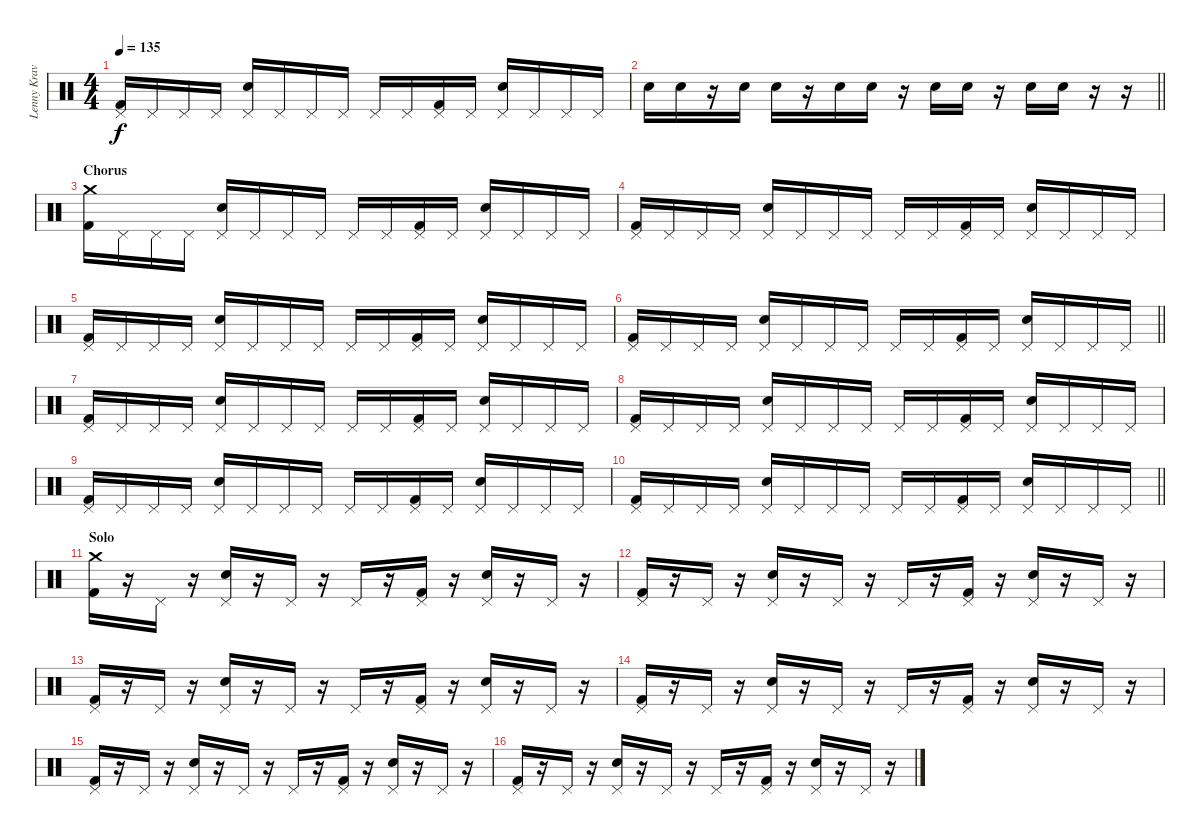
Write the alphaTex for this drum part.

\track ("Lenny Kravitz (drums)" "Lenny Krav") {instrument percussion}
\staff {score}
\articulation defaults
\ts (4 4)
\tempo 135
\clef neutral
\ks c
("Pedal Hi-Hat (hit)" "Kick (hit) 2").16{dy f} "Pedal Hi-Hat (hit)".16 "Pedal Hi-Hat (hit)".16 "Pedal Hi-Hat (hit)".16 ("Pedal Hi-Hat (hit)" "Electric Snare (hit)").16 "Pedal Hi-Hat (hit)".16 "Pedal Hi-Hat (hit)".16 "Pedal Hi-Hat (hit)".16 "Pedal Hi-Hat (hit)".16 "Pedal Hi-Hat (hit)".16 ("Pedal Hi-Hat (hit)" "Kick (hit) 2").16 "Pedal Hi-Hat (hit)".16 ("Pedal Hi-Hat (hit)" "Electric Snare (hit)").16 "Pedal Hi-Hat (hit)".16 "Pedal Hi-Hat (hit)".16 "Pedal Hi-Hat (hit)".16 |
\barLineRight lightlight "Electric Snare (hit)".16 "Electric Snare (hit)".16
r.16 "Electric Snare (hit)".16 "Electric Snare (hit)".16 r.16 "Electric Snare (hit)".16 "Electric Snare (hit)".16 r.16 "Electric Snare (hit)".16 "Electric Snare (hit)".16 r.16 "Electric Snare (hit)".16 "Electric Snare (hit)".16 r.16 r.16 |
\section ("" "Chorus")
("Crash medium (hit)" "Kick (hit) 2").16 "Pedal Hi-Hat (hit)".16 "Pedal Hi-Hat (hit)".16 "Pedal Hi-Hat (hit)".16 ("Pedal Hi-Hat (hit)" "Electric Snare (hit)").16 "Pedal Hi-Hat (hit)".16 "Pedal Hi-Hat (hit)".16 "Pedal Hi-Hat (hit)".16 "Pedal Hi-Hat (hit)".16 "Pedal Hi-Hat (hit)".16 ("Pedal Hi-Hat (hit)" "Kick (hit) 2").16 "Pedal Hi-Hat (hit)".16 ("Pedal Hi-Hat (hit)" "Electric Snare (hit)").16 "Pedal Hi-Hat (hit)".16 "Pedal Hi-Hat (hit)".16 "Pedal Hi-Hat (hit)".16 |
("Pedal Hi-Hat (hit)" "Kick (hit) 2").16 "Pedal Hi-Hat (hit)".16 "Pedal Hi-Hat (hit)".16 "Pedal Hi-Hat (hit)".16 ("Pedal Hi-Hat (hit)" "Electric Snare (hit)").16 "Pedal Hi-Hat (hit)".16 "Pedal Hi-Hat (hit)".16 "Pedal Hi-Hat (hit)".16 "Pedal Hi-Hat (hit)".16 "Pedal Hi-Hat (hit)".16 ("Pedal Hi-Hat (hit)" "Kick (hit) 2").16 "Pedal Hi-Hat (hit)".16 ("Pedal Hi-Hat (hit)" "Electric Snare (hit)").16 "Pedal Hi-Hat (hit)".16 "Pedal Hi-Hat (hit)".16 "Pedal Hi-Hat (hit)".16 |
("Pedal Hi-Hat (hit)" "Kick (hit) 2").16 "Pedal Hi-Hat (hit)".16 "Pedal Hi-Hat (hit)".16 "Pedal Hi-Hat (hit)".16 ("Pedal Hi-Hat (hit)" "Electric Snare (hit)").16 "Pedal Hi-Hat (hit)".16 "Pedal Hi-Hat (hit)".16 "Pedal Hi-Hat (hit)".16 "Pedal Hi-Hat (hit)".16 "Pedal Hi-Hat (hit)".16 ("Pedal Hi-Hat (hit)" "Kick (hit) 2").16 "Pedal Hi-Hat (hit)".16 ("Pedal Hi-Hat (hit)" "Electric Snare (hit)").16 "Pedal Hi-Hat (hit)".16 "Pedal Hi-Hat (hit)".16 "Pedal Hi-Hat (hit)".16 |
\barLineRight lightlight
("Pedal Hi-Hat (hit)" "Kick (hit) 2").16 "Pedal Hi-Hat (hit)".16 "Pedal Hi-Hat (hit)".16 "Pedal Hi-Hat (hit)".16 ("Pedal Hi-Hat (hit)" "Electric Snare (hit)").16 "Pedal Hi-Hat (hit)".16 "Pedal Hi-Hat (hit)".16 "Pedal Hi-Hat (hit)".16 "Pedal Hi-Hat (hit)".16 "Pedal Hi-Hat (hit)".16 ("Pedal Hi-Hat (hit)" "Kick (hit) 2").16 "Pedal Hi-Hat (hit)".16 ("Pedal Hi-Hat (hit)" "Electric Snare (hit)").16 "Pedal Hi-Hat (hit)".16 "Pedal Hi-Hat (hit)".16 "Pedal Hi-Hat (hit)".16 |
("Pedal Hi-Hat (hit)" "Kick (hit) 2").16 "Pedal Hi-Hat (hit)".16 "Pedal Hi-Hat (hit)".16 "Pedal Hi-Hat (hit)".16 ("Pedal Hi-Hat (hit)" "Electric Snare (hit)").16 "Pedal Hi-Hat (hit)".16 "Pedal Hi-Hat (hit)".16 "Pedal Hi-Hat (hit)".16 "Pedal Hi-Hat (hit)".16 "Pedal Hi-Hat (hit)".16 ("Pedal Hi-Hat (hit)" "Kick (hit) 2").16 "Pedal Hi-Hat (hit)".16 ("Pedal Hi-Hat (hit)" "Electric Snare (hit)").16 "Pedal Hi-Hat (hit)".16 "Pedal Hi-Hat (hit)".16 "Pedal Hi-Hat (hit)".16 |
("Pedal Hi-Hat (hit)" "Kick (hit) 2").16 "Pedal Hi-Hat (hit)".16 "Pedal Hi-Hat (hit)".16 "Pedal Hi-Hat (hit)".16 ("Pedal Hi-Hat (hit)" "Electric Snare (hit)").16 "Pedal Hi-Hat (hit)".16 "Pedal Hi-Hat (hit)".16 "Pedal Hi-Hat (hit)".16 "Pedal Hi-Hat (hit)".16 "Pedal Hi-Hat (hit)".16 ("Pedal Hi-Hat (hit)" "Kick (hit) 2").16 "Pedal Hi-Hat (hit)".16 ("Pedal Hi-Hat (hit)" "Electric Snare (hit)").16 "Pedal Hi-Hat (hit)".16 "Pedal Hi-Hat (hit)".16 "Pedal Hi-Hat (hit)".16 |
("Pedal Hi-Hat (hit)" "Kick (hit) 2").16 "Pedal Hi-Hat (hit)".16 "Pedal Hi-Hat (hit)".16 "Pedal Hi-Hat (hit)".16 ("Pedal Hi-Hat (hit)" "Electric Snare (hit)").16 "Pedal Hi-Hat (hit)".16 "Pedal Hi-Hat (hit)".16 "Pedal Hi-Hat (hit)".16 "Pedal Hi-Hat (hit)".16 "Pedal Hi-Hat (hit)".16 ("Pedal Hi-Hat (hit)" "Kick (hit) 2").16 "Pedal Hi-Hat (hit)".16 ("Pedal Hi-Hat (hit)" "Electric Snare (hit)").16 "Pedal Hi-Hat (hit)".16 "Pedal Hi-Hat (hit)".16 "Pedal Hi-Hat (hit)".16 |
\barLineRight lightlight
("Pedal Hi-Hat (hit)" "Kick (hit) 2").16 "Pedal Hi-Hat (hit)".16 "Pedal Hi-Hat (hit)".16 "Pedal Hi-Hat (hit)".16 ("Pedal Hi-Hat (hit)" "Electric Snare (hit)").16 "Pedal Hi-Hat (hit)".16 "Pedal Hi-Hat (hit)".16 "Pedal Hi-Hat (hit)".16 "Pedal Hi-Hat (hit)".16 "Pedal Hi-Hat (hit)".16 ("Pedal Hi-Hat (hit)" "Kick (hit) 2").16 "Pedal Hi-Hat (hit)".16 ("Pedal Hi-Hat (hit)" "Electric Snare (hit)").16 "Pedal Hi-Hat (hit)".16 "Pedal Hi-Hat (hit)".16 "Pedal Hi-Hat (hit)".16 |
\section ("" "Solo")
("Crash medium (hit)" "Kick (hit) 2").16 r.16 "Pedal Hi-Hat (hit)".16 r.16 ("Pedal Hi-Hat (hit)" "Electric Snare (hit)").16 r.16 "Pedal Hi-Hat (hit)".16 r.16 "Pedal Hi-Hat (hit)".16 r.16 ("Pedal Hi-Hat (hit)" "Kick (hit) 2").16 r.16 ("Pedal Hi-Hat (hit)" "Electric Snare (hit)").16 r.16 "Pedal Hi-Hat (hit)".16 r.16 |
("Pedal Hi-Hat (hit)" "Kick (hit) 2").16 r.16 "Pedal Hi-Hat (hit)".16 r.16 ("Pedal Hi-Hat (hit)" "Electric Snare (hit)").16 r.16 "Pedal Hi-Hat (hit)".16 r.16 "Pedal Hi-Hat (hit)".16 r.16 ("Pedal Hi-Hat (hit)" "Kick (hit) 2").16 r.16 ("Pedal Hi-Hat (hit)" "Electric Snare (hit)").16 r.16 "Pedal Hi-Hat (hit)".16 r.16 |
("Pedal Hi-Hat (hit)" "Kick (hit) 2").16 r.16 "Pedal Hi-Hat (hit)".16 r.16 ("Pedal Hi-Hat (hit)" "Electric Snare (hit)").16 r.16 "Pedal Hi-Hat (hit)".16 r.16 "Pedal Hi-Hat (hit)".16 r.16 ("Pedal Hi-Hat (hit)" "Kick (hit) 2").16 r.16 ("Pedal Hi-Hat (hit)" "Electric Snare (hit)").16 r.16 "Pedal Hi-Hat (hit)".16 r.16 |
("Pedal Hi-Hat (hit)" "Kick (hit) 2").16 r.16 "Pedal Hi-Hat (hit)".16 r.16 ("Pedal Hi-Hat (hit)" "Electric Snare (hit)").16 r.16 "Pedal Hi-Hat (hit)".16 r.16 "Pedal Hi-Hat (hit)".16 r.16 ("Pedal Hi-Hat (hit)" "Kick (hit) 2").16 r.16 ("Pedal Hi-Hat (hit)" "Electric Snare (hit)").16 r.16 "Pedal Hi-Hat (hit)".16 r.16 |
("Pedal Hi-Hat (hit)" "Kick (hit) 2").16 r.16 "Pedal Hi-Hat (hit)".16 r.16 ("Pedal Hi-Hat (hit)" "Electric Snare (hit)").16 r.16 "Pedal Hi-Hat (hit)".16 r.16 "Pedal Hi-Hat (hit)".16 r.16 ("Pedal Hi-Hat (hit)" "Kick (hit) 2").16 r.16 ("Pedal Hi-Hat (hit)" "Electric Snare (hit)").16 r.16 "Pedal Hi-Hat (hit)".16 r.16 |
("Pedal Hi-Hat (hit)" "Kick (hit) 2").16 r.16 "Pedal Hi-Hat (hit)".16 r.16 ("Pedal Hi-Hat (hit)" "Electric Snare (hit)").16 r.16 "Pedal Hi-Hat (hit)".16 r.16 "Pedal Hi-Hat (hit)".16 r.16 ("Pedal Hi-Hat (hit)" "Kick (hit) 2").16 r.16 ("Pedal Hi-Hat (hit)" "Electric Snare (hit)").16 r.16 "Pedal Hi-Hat (hit)".16 r.16
